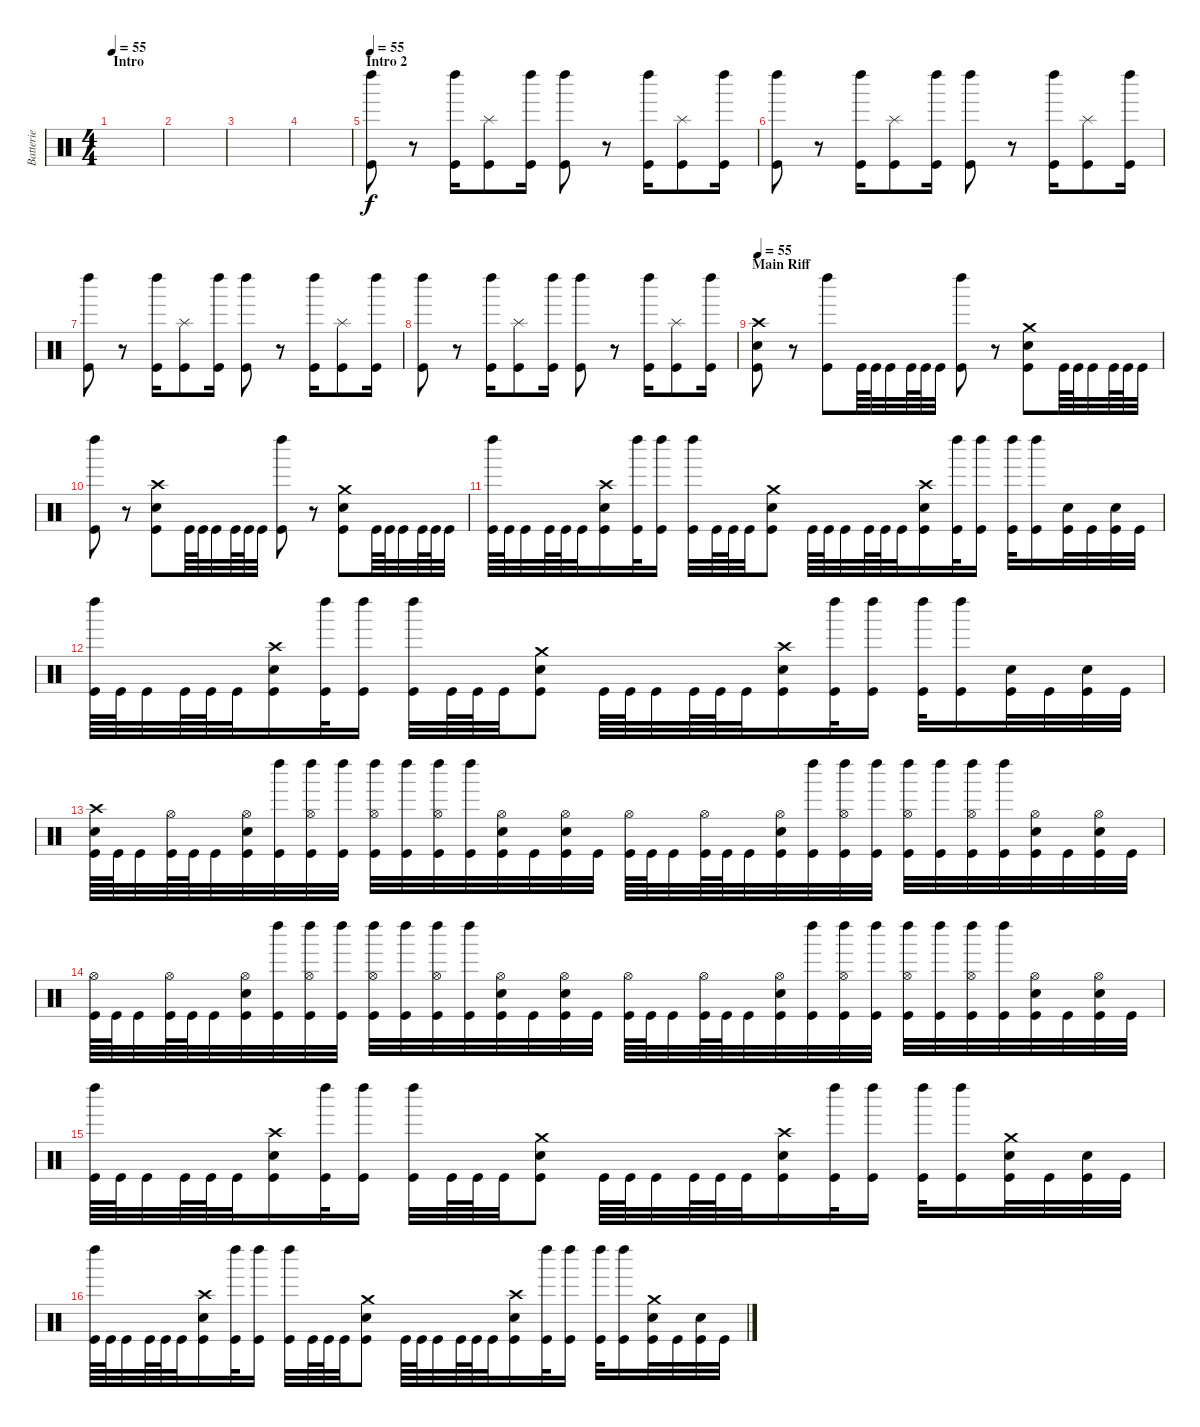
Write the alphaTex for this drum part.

\track ("Batterie" "Batterie") {instrument percussion}
\staff {score}
\articulation defaults
\ts (4 4)
\section ("" "Intro")
\tempo 55
\tempo 35
\tempo 40
\tempo 55
\clef neutral
\ks c
|
|
|
|
\section ("" "Intro 2")
\tempo 55
("Kick (hit)" "Left Maraca (hit)").8 r.8 ("Kick (hit)" "Left Maraca (hit)").16 ("Kick (hit)" "Splash (hit)").8 ("Kick (hit)" "Left Maraca (hit)").16 ("Kick (hit)" "Left Maraca (hit)").8 r.8 ("Kick (hit)" "Left Maraca (hit)").16 ("Kick (hit)" "Splash (hit)").8 ("Kick (hit)" "Left Maraca (hit)").16 |
("Kick (hit)" "Left Maraca (hit)").8 r.8 ("Kick (hit)" "Left Maraca (hit)").16 ("Kick (hit)" "Splash (hit)").8 ("Kick (hit)" "Left Maraca (hit)").16 ("Kick (hit)" "Left Maraca (hit)").8 r.8 ("Kick (hit)" "Left Maraca (hit)").16 ("Kick (hit)" "Splash (hit)").8 ("Kick (hit)" "Left Maraca (hit)").16 |
("Kick (hit)" "Left Maraca (hit)").8 r.8 ("Kick (hit)" "Left Maraca (hit)").16 ("Kick (hit)" "Splash (hit)").8 ("Kick (hit)" "Left Maraca (hit)").16 ("Kick (hit)" "Left Maraca (hit)").8 r.8 ("Kick (hit)" "Left Maraca (hit)").16 ("Kick (hit)" "Splash (hit)").8 ("Kick (hit)" "Left Maraca (hit)").16 |
("Kick (hit)" "Left Maraca (hit)").8 r.8 ("Kick (hit)" "Left Maraca (hit)").16 ("Kick (hit)" "Splash (hit)").8 ("Kick (hit)" "Left Maraca (hit)").16 ("Kick (hit)" "Left Maraca (hit)").8 r.8 ("Kick (hit)" "Left Maraca (hit)").16 ("Kick (hit)" "Splash (hit)").8 ("Kick (hit)" "Left Maraca (hit)").16 |
\section ("" "Main Riff")
\tempo 55
("Kick (hit)" "Electric Snare (hit)" "Crash high (hit)").8 r.8 ("Kick (hit)" "Left Maraca (hit)").8 "Kick (hit)".64 "Kick (hit)".64 "Kick (hit)".32 "Kick (hit)".64 "Kick (hit)".64 "Kick (hit)".32 ("Kick (hit)" "Left Maraca (hit)").8 r.8 ("Kick (hit)" "Electric Snare (hit)" "Crash medium (hit)").8 "Kick (hit)".64 "Kick (hit)".64 "Kick (hit)".32 "Kick (hit)".64 "Kick (hit)".64 "Kick (hit)".32 |
("Kick (hit)" "Left Maraca (hit)").8 r.8 ("Kick (hit)" "Electric Snare (hit)" "Crash high (hit)").8 "Kick (hit)".64 "Kick (hit)".64 "Kick (hit)".32 "Kick (hit)".64 "Kick (hit)".64 "Kick (hit)".32 ("Kick (hit)" "Left Maraca (hit)").8 r.8 ("Kick (hit)" "Electric Snare (hit)" "Crash medium (hit)").8 "Kick (hit)".64 "Kick (hit)".64 "Kick (hit)".32 "Kick (hit)".64 "Kick (hit)".64 "Kick (hit)".32 |
("Kick (hit)" "Left Maraca (hit)").64 "Kick (hit)".64 "Kick (hit)".32 "Kick (hit)".64 "Kick (hit)".64 "Kick (hit)".32 ("Kick (hit)" "Electric Snare (hit)" "Crash high (hit)").16 ("Kick (hit)" "Left Maraca (hit)").32 ("Kick (hit)" "Left Maraca (hit)").16 ("Kick (hit)" "Left Maraca (hit)").32 "Kick (hit)".64 "Kick (hit)".64 "Kick (hit)".32 ("Kick (hit)" "Electric Snare (hit)" "Crash medium (hit)").8 "Kick (hit)".64 "Kick (hit)".64 "Kick (hit)".32 "Kick (hit)".64 "Kick (hit)".64 "Kick (hit)".32 ("Kick (hit)" "Electric Snare (hit)" "Crash high (hit)").16 ("Kick (hit)" "Left Maraca (hit)").32 ("Kick (hit)" "Left Maraca (hit)").16 ("Kick (hit)" "Left Maraca (hit)").32 ("Kick (hit)" "Left Maraca (hit)").16 ("Kick (hit)" "Electric Snare (hit)").32 "Kick (hit)".32 ("Kick (hit)" "Electric Snare (hit)").32 "Kick (hit)".32 |
("Kick (hit)" "Left Maraca (hit)").64 "Kick (hit)".64 "Kick (hit)".32 "Kick (hit)".64 "Kick (hit)".64 "Kick (hit)".32 ("Kick (hit)" "Electric Snare (hit)" "Crash high (hit)").16 ("Kick (hit)" "Left Maraca (hit)").32 ("Kick (hit)" "Left Maraca (hit)").16 ("Kick (hit)" "Left Maraca (hit)").32 "Kick (hit)".64 "Kick (hit)".64 "Kick (hit)".32 ("Kick (hit)" "Electric Snare (hit)" "Crash medium (hit)").8 "Kick (hit)".64 "Kick (hit)".64 "Kick (hit)".32 "Kick (hit)".64 "Kick (hit)".64 "Kick (hit)".32 ("Kick (hit)" "Electric Snare (hit)" "Crash high (hit)").16 ("Kick (hit)" "Left Maraca (hit)").32 ("Kick (hit)" "Left Maraca (hit)").16 ("Kick (hit)" "Left Maraca (hit)").32 ("Kick (hit)" "Left Maraca (hit)").16 ("Kick (hit)" "Electric Snare (hit)").32 "Kick (hit)".32 ("Kick (hit)" "Electric Snare (hit)").32 "Kick (hit)".32 |
("Kick (hit)" "Electric Snare (hit)" "Crash high (hit)").64 "Kick (hit)".64 "Kick (hit)".32 ("Kick (hit)" "Hi-Hat (open)").64 "Kick (hit)".64 "Kick (hit)".32 ("Kick (hit)" "Electric Snare (hit)" "Hi-Hat (open)").32 ("Kick (hit)" "Left Maraca (hit)").32 ("Kick (hit)" "Left Maraca (hit)" "Hi-Hat (open)").32 ("Kick (hit)" "Left Maraca (hit)").32 ("Kick (hit)" "Left Maraca (hit)" "Hi-Hat (open)").32 ("Kick (hit)" "Left Maraca (hit)").32 ("Kick (hit)" "Left Maraca (hit)" "Hi-Hat (open)").32 ("Kick (hit)" "Left Maraca (hit)").32 ("Kick (hit)" "Electric Snare (hit)" "Hi-Hat (open)").32 "Kick (hit)".32 ("Kick (hit)" "Electric Snare (hit)" "Hi-Hat (open)").32 "Kick (hit)".32 ("Kick (hit)" "Hi-Hat (open)").64 "Kick (hit)".64 "Kick (hit)".32 ("Kick (hit)" "Hi-Hat (open)").64 "Kick (hit)".64 "Kick (hit)".32 ("Kick (hit)" "Electric Snare (hit)" "Hi-Hat (open)").32 ("Kick (hit)" "Left Maraca (hit)").32 ("Kick (hit)" "Left Maraca (hit)" "Hi-Hat (open)").32 ("Kick (hit)" "Left Maraca (hit)").32 ("Kick (hit)" "Left Maraca (hit)" "Hi-Hat (open)").32 ("Kick (hit)" "Left Maraca (hit)").32 ("Kick (hit)" "Left Maraca (hit)" "Hi-Hat (open)").32 ("Kick (hit)" "Left Maraca (hit)").32 ("Kick (hit)" "Electric Snare (hit)" "Hi-Hat (open)").32 "Kick (hit)".32 ("Kick (hit)" "Electric Snare (hit)" "Hi-Hat (open)").32 "Kick (hit)".32 |
("Kick (hit)" "Hi-Hat (open)").64 "Kick (hit)".64 "Kick (hit)".32 ("Kick (hit)" "Hi-Hat (open)").64 "Kick (hit)".64 "Kick (hit)".32 ("Kick (hit)" "Electric Snare (hit)" "Hi-Hat (open)").32 ("Kick (hit)" "Left Maraca (hit)").32 ("Kick (hit)" "Left Maraca (hit)" "Hi-Hat (open)").32 ("Kick (hit)" "Left Maraca (hit)").32 ("Kick (hit)" "Left Maraca (hit)" "Hi-Hat (open)").32 ("Kick (hit)" "Left Maraca (hit)").32 ("Kick (hit)" "Left Maraca (hit)" "Hi-Hat (open)").32 ("Kick (hit)" "Left Maraca (hit)").32 ("Kick (hit)" "Electric Snare (hit)" "Hi-Hat (open)").32 "Kick (hit)".32 ("Kick (hit)" "Electric Snare (hit)" "Hi-Hat (open)").32 "Kick (hit)".32 ("Kick (hit)" "Hi-Hat (open)").64 "Kick (hit)".64 "Kick (hit)".32 ("Kick (hit)" "Hi-Hat (open)").64 "Kick (hit)".64 "Kick (hit)".32 ("Kick (hit)" "Electric Snare (hit)" "Hi-Hat (open)").32 ("Kick (hit)" "Left Maraca (hit)").32 ("Kick (hit)" "Left Maraca (hit)" "Hi-Hat (open)").32 ("Kick (hit)" "Left Maraca (hit)").32 ("Kick (hit)" "Left Maraca (hit)" "Hi-Hat (open)").32 ("Kick (hit)" "Left Maraca (hit)").32 ("Kick (hit)" "Left Maraca (hit)" "Hi-Hat (open)").32 ("Kick (hit)" "Left Maraca (hit)").32 ("Kick (hit)" "Electric Snare (hit)" "Hi-Hat (open)").32 "Kick (hit)".32 ("Kick (hit)" "Electric Snare (hit)" "Hi-Hat (open)").32 "Kick (hit)".32 |
("Kick (hit)" "Left Maraca (hit)").64 "Kick (hit)".64 "Kick (hit)".32 "Kick (hit)".64 "Kick (hit)".64 "Kick (hit)".32 ("Kick (hit)" "Electric Snare (hit)" "Crash high (hit)").16 ("Kick (hit)" "Left Maraca (hit)").32 ("Kick (hit)" "Left Maraca (hit)").16 ("Kick (hit)" "Left Maraca (hit)").32 "Kick (hit)".64 "Kick (hit)".64 "Kick (hit)".32 ("Kick (hit)" "Electric Snare (hit)" "Crash medium (hit)").8 "Kick (hit)".64 "Kick (hit)".64 "Kick (hit)".32 "Kick (hit)".64 "Kick (hit)".64 "Kick (hit)".32 ("Kick (hit)" "Electric Snare (hit)" "Crash high (hit)").16 ("Kick (hit)" "Left Maraca (hit)").32 ("Kick (hit)" "Left Maraca (hit)").16 ("Kick (hit)" "Left Maraca (hit)").32 ("Kick (hit)" "Left Maraca (hit)").16 ("Kick (hit)" "Electric Snare (hit)" "Crash medium (hit)").32 "Kick (hit)".32 ("Kick (hit)" "Electric Snare (hit)").32 "Kick (hit)".32 |
("Kick (hit)" "Left Maraca (hit)").64 "Kick (hit)".64 "Kick (hit)".32 "Kick (hit)".64 "Kick (hit)".64 "Kick (hit)".32 ("Kick (hit)" "Electric Snare (hit)" "Crash high (hit)").16 ("Kick (hit)" "Left Maraca (hit)").32 ("Kick (hit)" "Left Maraca (hit)").16 ("Kick (hit)" "Left Maraca (hit)").32 "Kick (hit)".64 "Kick (hit)".64 "Kick (hit)".32 ("Kick (hit)" "Electric Snare (hit)" "Crash medium (hit)").8 "Kick (hit)".64 "Kick (hit)".64 "Kick (hit)".32 "Kick (hit)".64 "Kick (hit)".64 "Kick (hit)".32 ("Kick (hit)" "Electric Snare (hit)" "Crash high (hit)").16 ("Kick (hit)" "Left Maraca (hit)").32 ("Kick (hit)" "Left Maraca (hit)").16 ("Kick (hit)" "Left Maraca (hit)").32 ("Kick (hit)" "Left Maraca (hit)").16 ("Kick (hit)" "Electric Snare (hit)" "Crash medium (hit)").32 "Kick (hit)".32 ("Kick (hit)" "Electric Snare (hit)").32 "Kick (hit)".32
